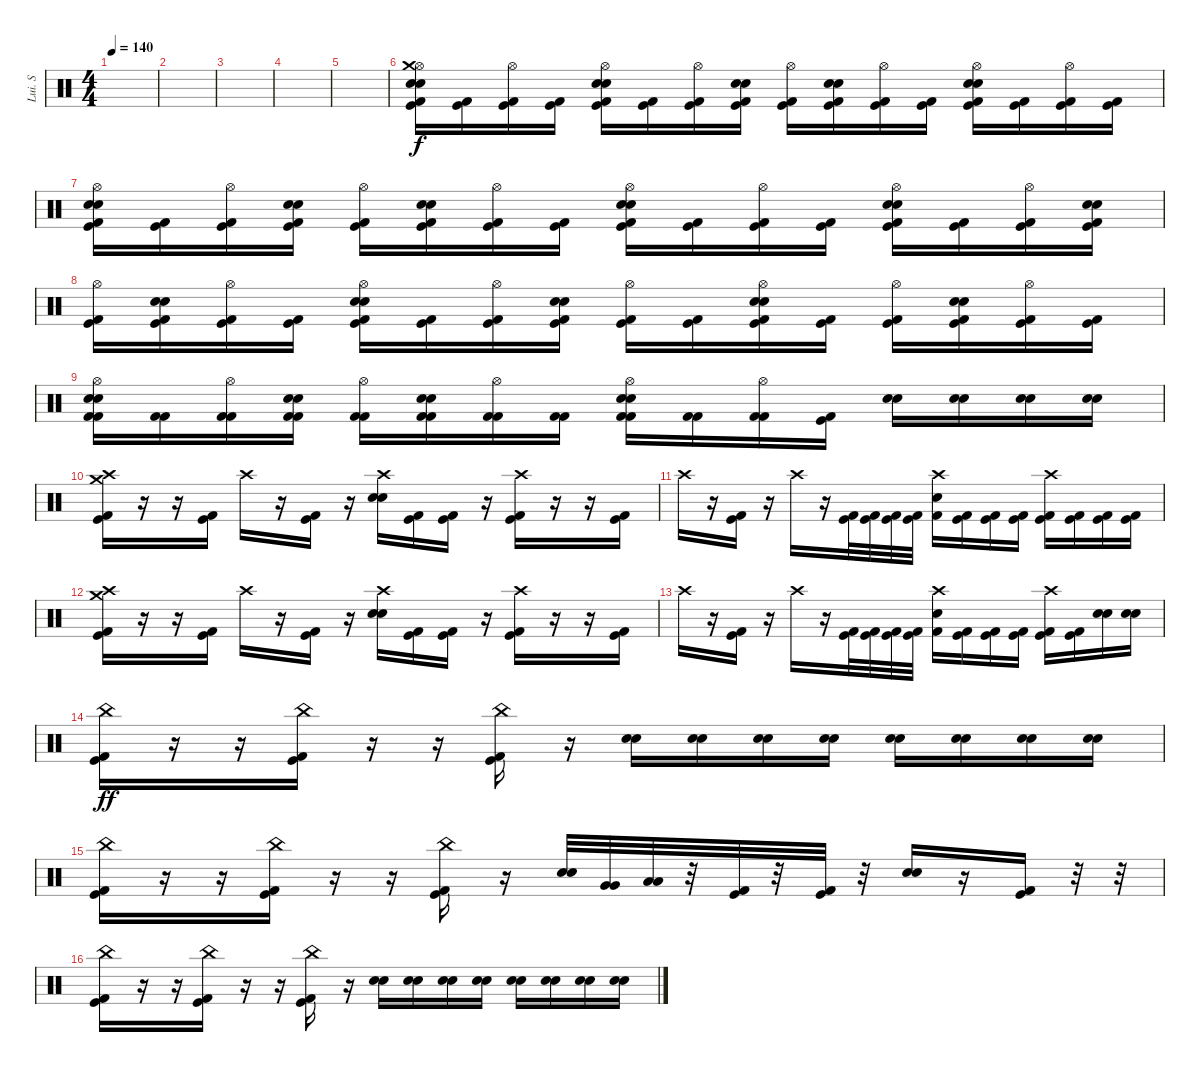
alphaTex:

\track ("Lui. S" "Lui. S") {instrument percussion}
\staff {score}
\articulation defaults
\ts (4 4)
\tempo 140
\clef neutral
\ks c
|
|
|
|
|
("Hi-Hat (open)" "Crash medium (hit)" "Snare (hit) 2" "Electric Snare (hit)" "Kick (hit)" "Kick (hit) 2").16{dy f volume 13} ("Kick (hit)" "Kick (hit) 2").16 ("Hi-Hat (open)" "Kick (hit)" "Kick (hit) 2").16 ("Kick (hit)" "Kick (hit) 2").16 ("Hi-Hat (open)" "Snare (hit) 2" "Electric Snare (hit)" "Kick (hit)" "Kick (hit) 2").16 ("Kick (hit)" "Kick (hit) 2").16 ("Hi-Hat (open)" "Kick (hit)" "Kick (hit) 2").16 ("Snare (hit) 2" "Electric Snare (hit)" "Kick (hit)" "Kick (hit) 2").16 ("Hi-Hat (open)" "Kick (hit)" "Kick (hit) 2").16 ("Snare (hit) 2" "Electric Snare (hit)" "Kick (hit)" "Kick (hit) 2").16 ("Hi-Hat (open)" "Kick (hit)" "Kick (hit) 2").16 ("Kick (hit)" "Kick (hit) 2").16 ("Hi-Hat (open)" "Snare (hit) 2" "Electric Snare (hit)" "Kick (hit)" "Kick (hit) 2").16 ("Kick (hit)" "Kick (hit) 2").16 ("Hi-Hat (open)" "Kick (hit)" "Kick (hit) 2").16 ("Kick (hit)" "Kick (hit) 2").16 |
("Hi-Hat (open)" "Snare (hit) 2" "Electric Snare (hit)" "Kick (hit)" "Kick (hit) 2").16 ("Kick (hit)" "Kick (hit) 2").16 ("Hi-Hat (open)" "Kick (hit)" "Kick (hit) 2").16 ("Snare (hit) 2" "Electric Snare (hit)" "Kick (hit)" "Kick (hit) 2").16 ("Hi-Hat (open)" "Kick (hit)" "Kick (hit) 2").16 ("Snare (hit) 2" "Electric Snare (hit)" "Kick (hit)" "Kick (hit) 2").16 ("Hi-Hat (open)" "Kick (hit)" "Kick (hit) 2").16 ("Kick (hit)" "Kick (hit) 2").16 ("Hi-Hat (open)" "Snare (hit) 2" "Electric Snare (hit)" "Kick (hit)" "Kick (hit) 2").16 ("Kick (hit)" "Kick (hit) 2").16 ("Hi-Hat (open)" "Kick (hit)" "Kick (hit) 2").16 ("Kick (hit)" "Kick (hit) 2").16 ("Hi-Hat (open)" "Snare (hit) 2" "Electric Snare (hit)" "Kick (hit)" "Kick (hit) 2").16 ("Kick (hit)" "Kick (hit) 2").16 ("Hi-Hat (open)" "Kick (hit)" "Kick (hit) 2").16 ("Snare (hit) 2" "Electric Snare (hit)" "Kick (hit)" "Kick (hit) 2").16 |
("Hi-Hat (open)" "Kick (hit)" "Kick (hit) 2").16 ("Snare (hit) 2" "Electric Snare (hit)" "Kick (hit)" "Kick (hit) 2").16 ("Hi-Hat (open)" "Kick (hit)" "Kick (hit) 2").16 ("Kick (hit)" "Kick (hit) 2").16 ("Hi-Hat (open)" "Snare (hit) 2" "Electric Snare (hit)" "Kick (hit)" "Kick (hit) 2").16 ("Kick (hit)" "Kick (hit) 2").16 ("Hi-Hat (open)" "Kick (hit)" "Kick (hit) 2").16 ("Snare (hit) 2" "Electric Snare (hit)" "Kick (hit)" "Kick (hit) 2").16 ("Hi-Hat (open)" "Kick (hit)" "Kick (hit) 2").16 ("Kick (hit)" "Kick (hit) 2").16 ("Hi-Hat (open)" "Snare (hit) 2" "Electric Snare (hit)" "Kick (hit)" "Kick (hit) 2").16 ("Kick (hit)" "Kick (hit) 2").16 ("Hi-Hat (open)" "Kick (hit)" "Kick (hit) 2").16 ("Snare (hit) 2" "Electric Snare (hit)" "Kick (hit)" "Kick (hit) 2").16 ("Hi-Hat (open)" "Kick (hit)" "Kick (hit) 2").16 ("Kick (hit)" "Kick (hit) 2").16 |
("Hi-Hat (open)" "Snare (hit) 2" "Electric Snare (hit)" "Kick (hit) 2" "Kick (hit) 2").16 ("Kick (hit) 2" "Kick (hit) 2").16 ("Hi-Hat (open)" "Kick (hit) 2" "Kick (hit) 2").16 ("Snare (hit) 2" "Electric Snare (hit)" "Kick (hit) 2" "Kick (hit) 2").16 ("Hi-Hat (open)" "Kick (hit) 2" "Kick (hit) 2").16 ("Snare (hit) 2" "Electric Snare (hit)" "Kick (hit) 2" "Kick (hit) 2").16 ("Hi-Hat (open)" "Kick (hit) 2" "Kick (hit) 2").16 ("Kick (hit) 2" "Kick (hit) 2").16 ("Hi-Hat (open)" "Snare (hit) 2" "Electric Snare (hit)" "Kick (hit) 2" "Kick (hit) 2").16 ("Kick (hit) 2" "Kick (hit) 2").16 ("Hi-Hat (open)" "Kick (hit) 2" "Kick (hit) 2").16 ("Kick (hit)" "Kick (hit) 2").16 ("Snare (hit) 2" "Electric Snare (hit)").16 ("Snare (hit) 2" "Electric Snare (hit)").16 ("Snare (hit) 2" "Electric Snare (hit)").16 ("Snare (hit) 2" "Electric Snare (hit)").16 |
("Crash medium (hit)" "Crash high (hit)" "Kick (hit) 2" "Kick (hit)").16 r.16 r.16 ("Kick (hit) 2" "Kick (hit)").16 "Crash high (hit)".16 r.16 ("Kick (hit) 2" "Kick (hit)").16 r.16 ("Crash high (hit)" "Snare (hit) 2" "Electric Snare (hit)").16 ("Kick (hit) 2" "Kick (hit)").16 ("Kick (hit) 2" "Kick (hit)").16 r.16 ("Crash high (hit)" "Kick (hit) 2" "Kick (hit)").16 r.16 r.16 ("Kick (hit) 2" "Kick (hit)").16 |
"Crash high (hit)".16 r.16 ("Kick (hit) 2" "Kick (hit)").16 r.16 "Crash high (hit)".16 r.16 ("Kick (hit) 2" "Kick (hit)").32 ("Kick (hit) 2" "Kick (hit)").32 ("Kick (hit) 2" "Kick (hit)").32 ("Kick (hit) 2" "Kick (hit)").32 ("Crash high (hit)" "Kick (hit) 2" "Electric Snare (hit)").16 ("Kick (hit) 2" "Kick (hit)").16 ("Kick (hit) 2" "Kick (hit)").16 ("Kick (hit) 2" "Kick (hit)").16 ("Crash high (hit)" "Kick (hit) 2" "Kick (hit)").16 ("Kick (hit) 2" "Kick (hit)").16 ("Kick (hit) 2" "Kick (hit)").16 ("Kick (hit) 2" "Kick (hit)").16 |
("Crash medium (hit)" "Crash high (hit)" "Kick (hit) 2" "Kick (hit)").16 r.16 r.16 ("Kick (hit) 2" "Kick (hit)").16 "Crash high (hit)".16 r.16 ("Kick (hit) 2" "Kick (hit)").16 r.16 ("Crash high (hit)" "Snare (hit) 2" "Electric Snare (hit)").16 ("Kick (hit) 2" "Kick (hit)").16 ("Kick (hit) 2" "Kick (hit)").16 r.16 ("Crash high (hit)" "Kick (hit) 2" "Kick (hit)").16 r.16 r.16 ("Kick (hit) 2" "Kick (hit)").16 |
"Crash high (hit)".16 r.16 ("Kick (hit) 2" "Kick (hit)").16 r.16 "Crash high (hit)".16 r.16 ("Kick (hit) 2" "Kick (hit)").32 ("Kick (hit) 2" "Kick (hit)").32 ("Kick (hit) 2" "Kick (hit)").32 ("Kick (hit) 2" "Kick (hit)").32 ("Crash high (hit)" "Kick (hit) 2" "Electric Snare (hit)").16 ("Kick (hit) 2" "Kick (hit)").16 ("Kick (hit) 2" "Kick (hit)").16 ("Kick (hit) 2" "Kick (hit)").16 ("Crash high (hit)" "Kick (hit) 2" "Kick (hit)").16 ("Kick (hit) 2" "Kick (hit)").16 ("Snare (hit) 2" "Electric Snare (hit)").16 ("Snare (hit) 2" "Electric Snare (hit)").16 |
("China (hit)" "Kick (hit)" "Kick (hit) 2").16{dy ff} r.16 r.16 ("China (hit)" "Kick (hit)" "Kick (hit) 2").16 r.16 r.16 ("China (hit)" "Kick (hit)" "Kick (hit) 2").16 r.16 ("Snare (hit) 2" "Electric Snare (hit)").16 ("Snare (hit) 2" "Electric Snare (hit)").16 ("Snare (hit) 2" "Electric Snare (hit)").16 ("Snare (hit) 2" "Electric Snare (hit)").16 ("Snare (hit) 2" "Electric Snare (hit)").16 ("Snare (hit) 2" "Electric Snare (hit)").16 ("Snare (hit) 2" "Electric Snare (hit)").16 ("Snare (hit) 2" "Electric Snare (hit)").16 |
("China (hit)" "Kick (hit)" "Kick (hit) 2").16 r.16 r.16 ("China (hit)" "Kick (hit)" "Kick (hit) 2").16 r.16 r.16 ("China (hit)" "Kick (hit)" "Kick (hit) 2").16 r.16 ("Snare (hit) 2" "Electric Snare (hit)").32 ("Very Low Tom (hit)" "Very Low Tom (hit)").32 ("Low Floor Tom (hit)" "Low Floor Tom (hit)").32 r.32 ("Kick (hit)" "Kick (hit) 2").32 r.32 ("Kick (hit)" "Kick (hit) 2").32 r.32 ("Snare (hit) 2" "Electric Snare (hit)").16 r.16 ("Kick (hit)" "Kick (hit) 2").16 r.32 r.32 |
("China (hit)" "Kick (hit)" "Kick (hit) 2").16 r.16 r.16 ("China (hit)" "Kick (hit)" "Kick (hit) 2").16 r.16 r.16 ("China (hit)" "Kick (hit)" "Kick (hit) 2").16 r.16 ("Snare (hit) 2" "Electric Snare (hit)").16 ("Snare (hit) 2" "Electric Snare (hit)").16 ("Snare (hit) 2" "Electric Snare (hit)").16 ("Snare (hit) 2" "Electric Snare (hit)").16 ("Snare (hit) 2" "Electric Snare (hit)").16 ("Snare (hit) 2" "Electric Snare (hit)").16 ("Snare (hit) 2" "Electric Snare (hit)").16 ("Snare (hit) 2" "Electric Snare (hit)").16
